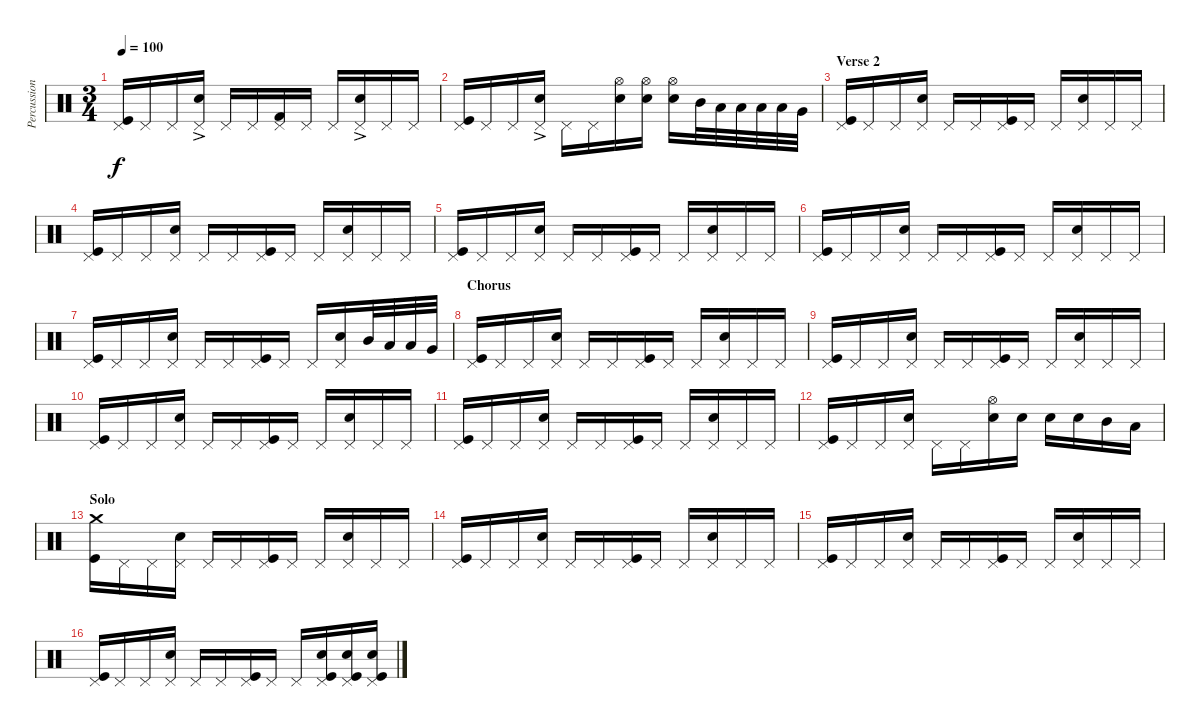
\track ("Percussion" "Percussion") {instrument percussion}
\staff {score}
\articulation defaults
\ts (3 4)
\tempo 100
\clef neutral
\ks c
("Pedal Hi-Hat (hit)" "Kick (hit)").16{dy f} "Pedal Hi-Hat (hit)".16 "Pedal Hi-Hat (hit)".16 ("Pedal Hi-Hat (hit)" "Hand Clap (hit)"{ac}).16 "Pedal Hi-Hat (hit)".16 "Pedal Hi-Hat (hit)".16 ("Pedal Hi-Hat (hit)" "Kick (hit) 2").16 "Pedal Hi-Hat (hit)".16 "Pedal Hi-Hat (hit)".16 ("Pedal Hi-Hat (hit)" "Hand Clap (hit)"{ac}).16 "Pedal Hi-Hat (hit)".16 "Pedal Hi-Hat (hit)".16 |
("Pedal Hi-Hat (hit)" "Kick (hit)").16 "Pedal Hi-Hat (hit)".16 "Pedal Hi-Hat (hit)".16 ("Pedal Hi-Hat (hit)" "Hand Clap (hit)"{ac}).16 "Pedal Hi-Hat (hit)".16 "Pedal Hi-Hat (hit)".16 ("Hi-Hat (open)" "Snare (hit) 2").16 ("Hi-Hat (open)" "Snare (hit) 2").16 ("Hi-Hat (open)" "Snare (hit) 2").16 "Mid Tom (hit)".32 "Low Tom (hit)".32 "Low Tom (hit)".32 "Low Tom (hit)".32 "Low Tom (hit)".32 "Very Low Tom (hit)".32 |
\section ("" "Verse 2")
("Pedal Hi-Hat (hit)" "Kick (hit)").16 "Pedal Hi-Hat (hit)".16 "Pedal Hi-Hat (hit)".16 ("Pedal Hi-Hat (hit)" "Snare (hit) 2").16 "Pedal Hi-Hat (hit)".16 "Pedal Hi-Hat (hit)".16 ("Pedal Hi-Hat (hit)" "Kick (hit)").16 "Pedal Hi-Hat (hit)".16 "Pedal Hi-Hat (hit)".16 ("Pedal Hi-Hat (hit)" "Snare (hit) 2").16 "Pedal Hi-Hat (hit)".16 "Pedal Hi-Hat (hit)".16 |
("Pedal Hi-Hat (hit)" "Kick (hit)").16 "Pedal Hi-Hat (hit)".16 "Pedal Hi-Hat (hit)".16 ("Pedal Hi-Hat (hit)" "Snare (hit) 2").16 "Pedal Hi-Hat (hit)".16 "Pedal Hi-Hat (hit)".16 ("Pedal Hi-Hat (hit)" "Kick (hit)").16 "Pedal Hi-Hat (hit)".16 "Pedal Hi-Hat (hit)".16 ("Pedal Hi-Hat (hit)" "Snare (hit) 2").16 "Pedal Hi-Hat (hit)".16 "Pedal Hi-Hat (hit)".16 |
("Pedal Hi-Hat (hit)" "Kick (hit)").16 "Pedal Hi-Hat (hit)".16 "Pedal Hi-Hat (hit)".16 ("Pedal Hi-Hat (hit)" "Snare (hit) 2").16 "Pedal Hi-Hat (hit)".16 "Pedal Hi-Hat (hit)".16 ("Pedal Hi-Hat (hit)" "Kick (hit)").16 "Pedal Hi-Hat (hit)".16 "Pedal Hi-Hat (hit)".16 ("Pedal Hi-Hat (hit)" "Snare (hit) 2").16 "Pedal Hi-Hat (hit)".16 "Pedal Hi-Hat (hit)".16 |
("Pedal Hi-Hat (hit)" "Kick (hit)").16 "Pedal Hi-Hat (hit)".16 "Pedal Hi-Hat (hit)".16 ("Pedal Hi-Hat (hit)" "Snare (hit) 2").16 "Pedal Hi-Hat (hit)".16 "Pedal Hi-Hat (hit)".16 ("Pedal Hi-Hat (hit)" "Kick (hit)").16 "Pedal Hi-Hat (hit)".16 "Pedal Hi-Hat (hit)".16 ("Pedal Hi-Hat (hit)" "Snare (hit) 2").16 "Pedal Hi-Hat (hit)".16 "Pedal Hi-Hat (hit)".16 |
("Pedal Hi-Hat (hit)" "Kick (hit)").16 "Pedal Hi-Hat (hit)".16 "Pedal Hi-Hat (hit)".16 ("Pedal Hi-Hat (hit)" "Snare (hit) 2").16 "Pedal Hi-Hat (hit)".16 "Pedal Hi-Hat (hit)".16 ("Pedal Hi-Hat (hit)" "Kick (hit)").16 "Pedal Hi-Hat (hit)".16 "Pedal Hi-Hat (hit)".16 ("Pedal Hi-Hat (hit)" "Snare (hit) 2").16 "Mid Tom (hit)".32 "Low Tom (hit)".32 "Low Tom (hit)".32 "Very Low Tom (hit)".32 |
\section ("" "Chorus")
("Pedal Hi-Hat (hit)" "Kick (hit)").16 "Pedal Hi-Hat (hit)".16 "Pedal Hi-Hat (hit)".16 ("Pedal Hi-Hat (hit)" "Snare (hit) 2").16 "Pedal Hi-Hat (hit)".16 "Pedal Hi-Hat (hit)".16 ("Pedal Hi-Hat (hit)" "Kick (hit)").16 "Pedal Hi-Hat (hit)".16 "Pedal Hi-Hat (hit)".16 ("Pedal Hi-Hat (hit)" "Snare (hit) 2").16 "Pedal Hi-Hat (hit)".16 "Pedal Hi-Hat (hit)".16 |
("Pedal Hi-Hat (hit)" "Kick (hit)").16 "Pedal Hi-Hat (hit)".16 "Pedal Hi-Hat (hit)".16 ("Pedal Hi-Hat (hit)" "Snare (hit) 2").16 "Pedal Hi-Hat (hit)".16 "Pedal Hi-Hat (hit)".16 ("Pedal Hi-Hat (hit)" "Kick (hit)").16 "Pedal Hi-Hat (hit)".16 "Pedal Hi-Hat (hit)".16 ("Pedal Hi-Hat (hit)" "Snare (hit) 2").16 "Pedal Hi-Hat (hit)".16 "Pedal Hi-Hat (hit)".16 |
("Pedal Hi-Hat (hit)" "Kick (hit)").16 "Pedal Hi-Hat (hit)".16 "Pedal Hi-Hat (hit)".16 ("Pedal Hi-Hat (hit)" "Snare (hit) 2").16 "Pedal Hi-Hat (hit)".16 "Pedal Hi-Hat (hit)".16 ("Pedal Hi-Hat (hit)" "Kick (hit)").16 "Pedal Hi-Hat (hit)".16 "Pedal Hi-Hat (hit)".16 ("Pedal Hi-Hat (hit)" "Snare (hit) 2").16 "Pedal Hi-Hat (hit)".16 "Pedal Hi-Hat (hit)".16 |
("Pedal Hi-Hat (hit)" "Kick (hit)").16 "Pedal Hi-Hat (hit)".16 "Pedal Hi-Hat (hit)".16 ("Pedal Hi-Hat (hit)" "Snare (hit) 2").16 "Pedal Hi-Hat (hit)".16 "Pedal Hi-Hat (hit)".16 ("Pedal Hi-Hat (hit)" "Kick (hit)").16 "Pedal Hi-Hat (hit)".16 "Pedal Hi-Hat (hit)".16 ("Pedal Hi-Hat (hit)" "Snare (hit) 2").16 "Pedal Hi-Hat (hit)".16 "Pedal Hi-Hat (hit)".16 |
("Pedal Hi-Hat (hit)" "Kick (hit)").16 "Pedal Hi-Hat (hit)".16 "Pedal Hi-Hat (hit)".16 ("Pedal Hi-Hat (hit)" "Snare (hit) 2").16 "Pedal Hi-Hat (hit)".16 "Pedal Hi-Hat (hit)".16 ("Hi-Hat (open)" "Snare (hit) 2").16 "Snare (hit) 2".16 "Snare (hit) 2".16 "Snare (hit) 2".16 "Mid Tom (hit)".16 "Low Tom (hit)".16 |
\section ("" "Solo")
("Crash medium (hit)" "Kick (hit)").16 "Pedal Hi-Hat (hit)".16 "Pedal Hi-Hat (hit)".16 ("Pedal Hi-Hat (hit)" "Snare (hit) 2").16 "Pedal Hi-Hat (hit)".16 "Pedal Hi-Hat (hit)".16 ("Pedal Hi-Hat (hit)" "Kick (hit)").16 "Pedal Hi-Hat (hit)".16 "Pedal Hi-Hat (hit)".16 ("Pedal Hi-Hat (hit)" "Snare (hit) 2").16 "Pedal Hi-Hat (hit)".16 "Pedal Hi-Hat (hit)".16 |
("Pedal Hi-Hat (hit)" "Kick (hit)").16 "Pedal Hi-Hat (hit)".16 "Pedal Hi-Hat (hit)".16 ("Pedal Hi-Hat (hit)" "Snare (hit) 2").16 "Pedal Hi-Hat (hit)".16 "Pedal Hi-Hat (hit)".16 ("Pedal Hi-Hat (hit)" "Kick (hit)").16 "Pedal Hi-Hat (hit)".16 "Pedal Hi-Hat (hit)".16 ("Pedal Hi-Hat (hit)" "Snare (hit) 2").16 "Pedal Hi-Hat (hit)".16 "Pedal Hi-Hat (hit)".16 |
("Pedal Hi-Hat (hit)" "Kick (hit)").16 "Pedal Hi-Hat (hit)".16 "Pedal Hi-Hat (hit)".16 ("Pedal Hi-Hat (hit)" "Snare (hit) 2").16 "Pedal Hi-Hat (hit)".16 "Pedal Hi-Hat (hit)".16 ("Pedal Hi-Hat (hit)" "Kick (hit)").16 "Pedal Hi-Hat (hit)".16 "Pedal Hi-Hat (hit)".16 ("Pedal Hi-Hat (hit)" "Snare (hit) 2").16 "Pedal Hi-Hat (hit)".16 "Pedal Hi-Hat (hit)".16 |
("Pedal Hi-Hat (hit)" "Kick (hit)").16 "Pedal Hi-Hat (hit)".16 "Pedal Hi-Hat (hit)".16 ("Pedal Hi-Hat (hit)" "Snare (hit) 2").16 "Pedal Hi-Hat (hit)".16 "Pedal Hi-Hat (hit)".16 ("Pedal Hi-Hat (hit)" "Kick (hit)").16 "Pedal Hi-Hat (hit)".16 "Pedal Hi-Hat (hit)".16 ("Pedal Hi-Hat (hit)" "Snare (hit) 2" "Kick (hit)").16 ("Pedal Hi-Hat (hit)" "Snare (hit) 2" "Kick (hit)").16 ("Pedal Hi-Hat (hit)" "Snare (hit) 2" "Kick (hit)").16
